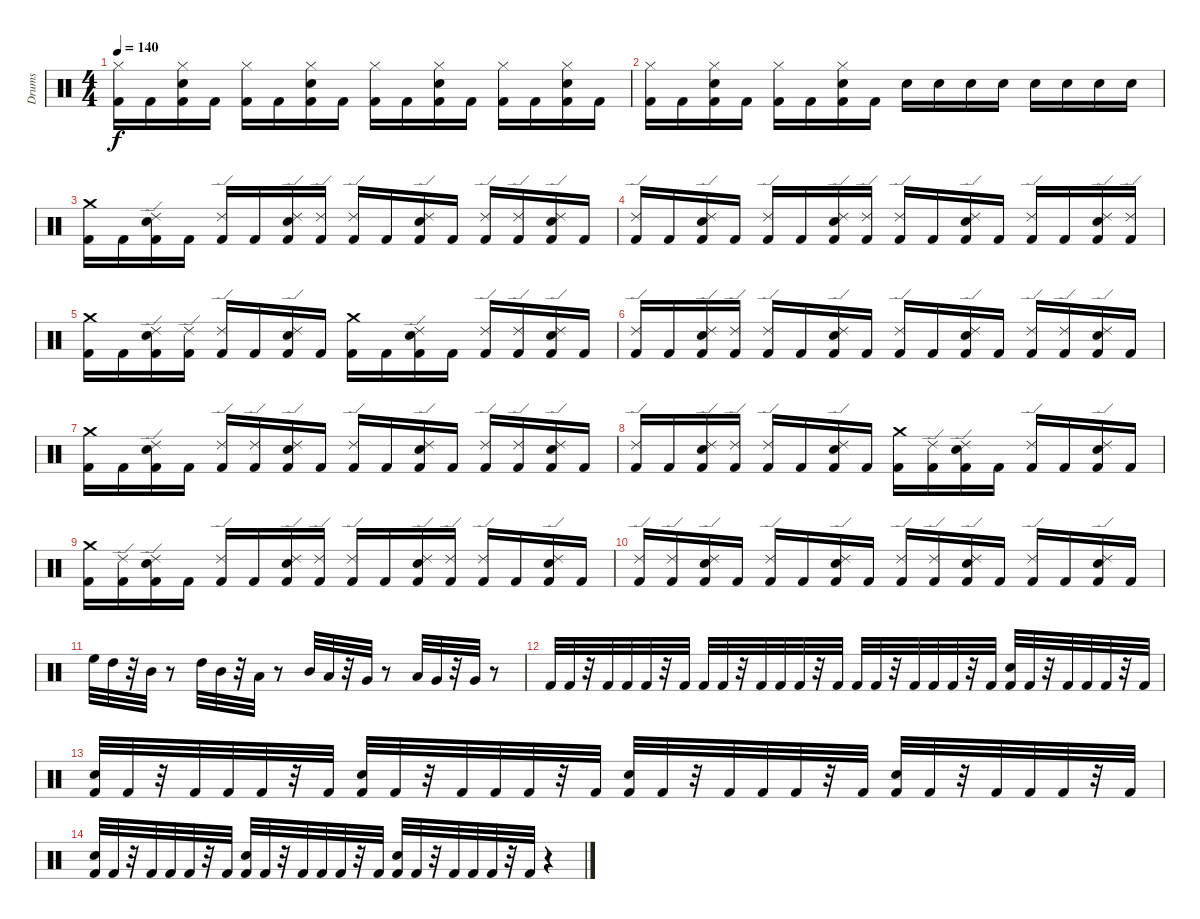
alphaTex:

\track ("Drums" "Drums") {instrument percussion}
\staff {score}
\articulation defaults
\ts (4 4)
\tempo 140
\clef neutral
\ks c
("Hi-Hat (closed)" "Kick (hit) 2").16{dy f} "Kick (hit) 2".16 ("Hi-Hat (closed)" "Electric Snare (hit)" "Kick (hit) 2").16 "Kick (hit) 2".16 ("Hi-Hat (closed)" "Kick (hit) 2").16 "Kick (hit) 2".16 ("Hi-Hat (closed)" "Electric Snare (hit)" "Kick (hit) 2").16 "Kick (hit) 2".16 ("Hi-Hat (closed)" "Kick (hit) 2").16 "Kick (hit) 2".16 ("Hi-Hat (closed)" "Electric Snare (hit)" "Kick (hit) 2").16 "Kick (hit) 2".16 ("Hi-Hat (closed)" "Kick (hit) 2").16 "Kick (hit) 2".16 ("Hi-Hat (closed)" "Electric Snare (hit)" "Kick (hit) 2").16 "Kick (hit) 2".16 |
("Hi-Hat (closed)" "Kick (hit) 2").16 "Kick (hit) 2".16 ("Hi-Hat (closed)" "Electric Snare (hit)" "Kick (hit) 2").16 "Kick (hit) 2".16 ("Hi-Hat (closed)" "Kick (hit) 2").16 "Kick (hit) 2".16 ("Hi-Hat (closed)" "Electric Snare (hit)" "Kick (hit) 2").16 "Kick (hit) 2".16 "Electric Snare (hit)".16 "Electric Snare (hit)".16 "Electric Snare (hit)".16 "Electric Snare (hit)".16 "Electric Snare (hit)".16 "Electric Snare (hit)".16 "Electric Snare (hit)".16 "Electric Snare (hit)".16 |
("Crash medium (hit)" "Kick (hit) 2").16 "Kick (hit) 2".16 ("Ride (edge) 2" "Electric Snare (hit)" "Kick (hit) 2").16 "Kick (hit) 2".16 ("Ride (edge) 2" "Kick (hit) 2").16 "Kick (hit) 2".16 ("Ride (edge) 2" "Electric Snare (hit)" "Kick (hit) 2").16 ("Ride (edge) 2" "Kick (hit) 2").16 ("Ride (edge) 2" "Kick (hit) 2").16 "Kick (hit) 2".16 ("Ride (edge) 2" "Electric Snare (hit)" "Kick (hit) 2").16 "Kick (hit) 2".16 ("Ride (edge) 2" "Kick (hit) 2").16 ("Ride (edge) 2" "Kick (hit) 2").16 ("Ride (edge) 2" "Electric Snare (hit)" "Kick (hit) 2").16 "Kick (hit) 2".16 |
("Ride (edge) 2" "Kick (hit) 2").16 "Kick (hit) 2".16 ("Ride (edge) 2" "Electric Snare (hit)" "Kick (hit) 2").16 "Kick (hit) 2".16 ("Ride (edge) 2" "Kick (hit) 2").16 "Kick (hit) 2".16 ("Ride (edge) 2" "Electric Snare (hit)" "Kick (hit) 2").16 ("Ride (edge) 2" "Kick (hit) 2").16 ("Ride (edge) 2" "Kick (hit) 2").16 "Kick (hit) 2".16 ("Ride (edge) 2" "Electric Snare (hit)" "Kick (hit) 2").16 "Kick (hit) 2".16 ("Ride (edge) 2" "Kick (hit) 2").16 "Kick (hit) 2".16 ("Ride (edge) 2" "Electric Snare (hit)" "Kick (hit) 2").16 ("Ride (edge) 2" "Kick (hit) 2").16 |
("Crash medium (hit)" "Kick (hit) 2").16 "Kick (hit) 2".16 ("Ride (edge) 2" "Electric Snare (hit)" "Kick (hit) 2").16 ("Ride (edge) 2" "Kick (hit) 2").16 ("Ride (edge) 2" "Kick (hit) 2").16 "Kick (hit) 2".16 ("Ride (edge) 2" "Electric Snare (hit)" "Kick (hit) 2").16 "Kick (hit) 2".16 ("Crash medium (hit)" "Kick (hit) 2").16 "Kick (hit) 2".16 ("Ride (edge) 2" "Electric Snare (hit)" "Kick (hit) 2").16 "Kick (hit) 2".16 ("Ride (edge) 2" "Kick (hit) 2").16 ("Ride (edge) 2" "Kick (hit) 2").16 ("Ride (edge) 2" "Electric Snare (hit)" "Kick (hit) 2").16 "Kick (hit) 2".16 |
("Ride (edge) 2" "Kick (hit) 2").16 "Kick (hit) 2".16 ("Ride (edge) 2" "Electric Snare (hit)" "Kick (hit) 2").16 ("Ride (edge) 2" "Kick (hit) 2").16 ("Ride (edge) 2" "Kick (hit) 2").16 "Kick (hit) 2".16 ("Ride (edge) 2" "Electric Snare (hit)" "Kick (hit) 2").16 "Kick (hit) 2".16 ("Ride (edge) 2" "Kick (hit) 2").16 "Kick (hit) 2".16 ("Ride (edge) 2" "Electric Snare (hit)" "Kick (hit) 2").16 "Kick (hit) 2".16 ("Ride (edge) 2" "Kick (hit) 2").16 ("Ride (edge) 2" "Kick (hit) 2").16 ("Ride (edge) 2" "Electric Snare (hit)" "Kick (hit) 2").16 "Kick (hit) 2".16 |
("Crash medium (hit)" "Kick (hit) 2").16 "Kick (hit) 2".16 ("Ride (edge) 2" "Electric Snare (hit)" "Kick (hit) 2").16 "Kick (hit) 2".16 ("Ride (edge) 2" "Kick (hit) 2").16 ("Ride (edge) 2" "Kick (hit) 2").16 ("Ride (edge) 2" "Electric Snare (hit)" "Kick (hit) 2").16 "Kick (hit) 2".16 ("Ride (edge) 2" "Kick (hit) 2").16 "Kick (hit) 2".16 ("Ride (edge) 2" "Electric Snare (hit)" "Kick (hit) 2").16 "Kick (hit) 2".16 ("Ride (edge) 2" "Kick (hit) 2").16 ("Ride (edge) 2" "Kick (hit) 2").16 ("Ride (edge) 2" "Electric Snare (hit)" "Kick (hit) 2").16 "Kick (hit) 2".16 |
("Ride (edge) 2" "Kick (hit) 2").16 "Kick (hit) 2".16 ("Ride (edge) 2" "Electric Snare (hit)" "Kick (hit) 2").16 ("Ride (edge) 2" "Kick (hit) 2").16 ("Ride (edge) 2" "Kick (hit) 2").16 "Kick (hit) 2".16 ("Ride (edge) 2" "Electric Snare (hit)" "Kick (hit) 2").16 "Kick (hit) 2".16 ("Crash medium (hit)" "Kick (hit) 2").16 ("Ride (edge) 2" "Kick (hit) 2").16 ("Ride (edge) 2" "Electric Snare (hit)" "Kick (hit) 2").16 "Kick (hit) 2".16 ("Ride (edge) 2" "Kick (hit) 2").16 "Kick (hit) 2".16 ("Ride (edge) 2" "Electric Snare (hit)" "Kick (hit) 2").16 "Kick (hit) 2".16 |
("Crash medium (hit)" "Kick (hit) 2").16 ("Ride (edge) 2" "Kick (hit) 2").16 ("Ride (edge) 2" "Electric Snare (hit)" "Kick (hit) 2").16 "Kick (hit) 2".16 ("Ride (edge) 2" "Kick (hit) 2").16 "Kick (hit) 2".16 ("Ride (edge) 2" "Electric Snare (hit)" "Kick (hit) 2").16 ("Ride (edge) 2" "Kick (hit) 2").16 ("Ride (edge) 2" "Kick (hit) 2").16 "Kick (hit) 2".16 ("Ride (edge) 2" "Electric Snare (hit)" "Kick (hit) 2").16 ("Ride (edge) 2" "Kick (hit) 2").16 ("Ride (edge) 2" "Kick (hit) 2").16 "Kick (hit) 2".16 ("Ride (edge) 2" "Electric Snare (hit)" "Kick (hit) 2").16 "Kick (hit) 2".16 |
("Ride (edge) 2" "Kick (hit) 2").16 ("Ride (edge) 2" "Kick (hit) 2").16 ("Ride (edge) 2" "Electric Snare (hit)" "Kick (hit) 2").16 "Kick (hit) 2".16 ("Ride (edge) 2" "Kick (hit) 2").16 "Kick (hit) 2".16 ("Ride (edge) 2" "Electric Snare (hit)" "Kick (hit) 2").16 "Kick (hit) 2".16 ("Ride (edge) 2" "Kick (hit) 2").16 ("Ride (edge) 2" "Kick (hit) 2").16 ("Ride (edge) 2" "Electric Snare (hit)" "Kick (hit) 2").16 "Kick (hit) 2".16 ("Ride (edge) 2" "Kick (hit) 2").16 "Kick (hit) 2".16 ("Ride (edge) 2" "Electric Snare (hit)" "Kick (hit) 2").16 "Kick (hit) 2".16 |
"High Floor Tom (hit)".32 "High Tom (hit)".32 r.32 "Mid Tom (hit)".32 r.8 "High Tom (hit)".32 "Mid Tom (hit)".32 r.32 "Low Tom (hit)".32 r.8 "Mid Tom (hit)".32 "Low Tom (hit)".32 r.32 "Very Low Tom (hit)".32 r.8 "Low Tom (hit)".32 "Very Low Tom (hit)".32 r.32 "Very Low Tom (hit)".32 r.8 |
"Kick (hit) 2".32 "Kick (hit) 2".32 r.32 "Kick (hit) 2".32 "Kick (hit) 2".32 "Kick (hit) 2".32 r.32 "Kick (hit) 2".32 "Kick (hit) 2".32 "Kick (hit) 2".32 r.32 "Kick (hit) 2".32 "Kick (hit) 2".32 "Kick (hit) 2".32 r.32 "Kick (hit) 2".32 "Kick (hit) 2".32 "Kick (hit) 2".32 r.32 "Kick (hit) 2".32 "Kick (hit) 2".32 "Kick (hit) 2".32 r.32 "Kick (hit) 2".32 ("Electric Snare (hit)" "Kick (hit) 2").32 "Kick (hit) 2".32 r.32 "Kick (hit) 2".32 "Kick (hit) 2".32 "Kick (hit) 2".32 r.32 "Kick (hit) 2".32 |
("Electric Snare (hit)" "Kick (hit) 2").32 "Kick (hit) 2".32 r.32 "Kick (hit) 2".32 "Kick (hit) 2".32 "Kick (hit) 2".32 r.32 "Kick (hit) 2".32 ("Electric Snare (hit)" "Kick (hit) 2").32 "Kick (hit) 2".32 r.32 "Kick (hit) 2".32 "Kick (hit) 2".32 "Kick (hit) 2".32 r.32 "Kick (hit) 2".32 ("Electric Snare (hit)" "Kick (hit) 2").32 "Kick (hit) 2".32 r.32 "Kick (hit) 2".32 "Kick (hit) 2".32 "Kick (hit) 2".32 r.32 "Kick (hit) 2".32 ("Electric Snare (hit)" "Kick (hit) 2").32 "Kick (hit) 2".32 r.32 "Kick (hit) 2".32 "Kick (hit) 2".32 "Kick (hit) 2".32 r.32 "Kick (hit) 2".32 |
("Electric Snare (hit)" "Kick (hit) 2").32 "Kick (hit) 2".32 r.32 "Kick (hit) 2".32 "Kick (hit) 2".32 "Kick (hit) 2".32 r.32 "Kick (hit) 2".32 ("Electric Snare (hit)" "Kick (hit) 2").32 "Kick (hit) 2".32 r.32 "Kick (hit) 2".32 "Kick (hit) 2".32 "Kick (hit) 2".32 r.32 "Kick (hit) 2".32 ("Electric Snare (hit)" "Kick (hit) 2").32 "Kick (hit) 2".32 r.32 "Kick (hit) 2".32 "Kick (hit) 2".32 "Kick (hit) 2".32 r.32 "Kick (hit) 2".32 r.4
